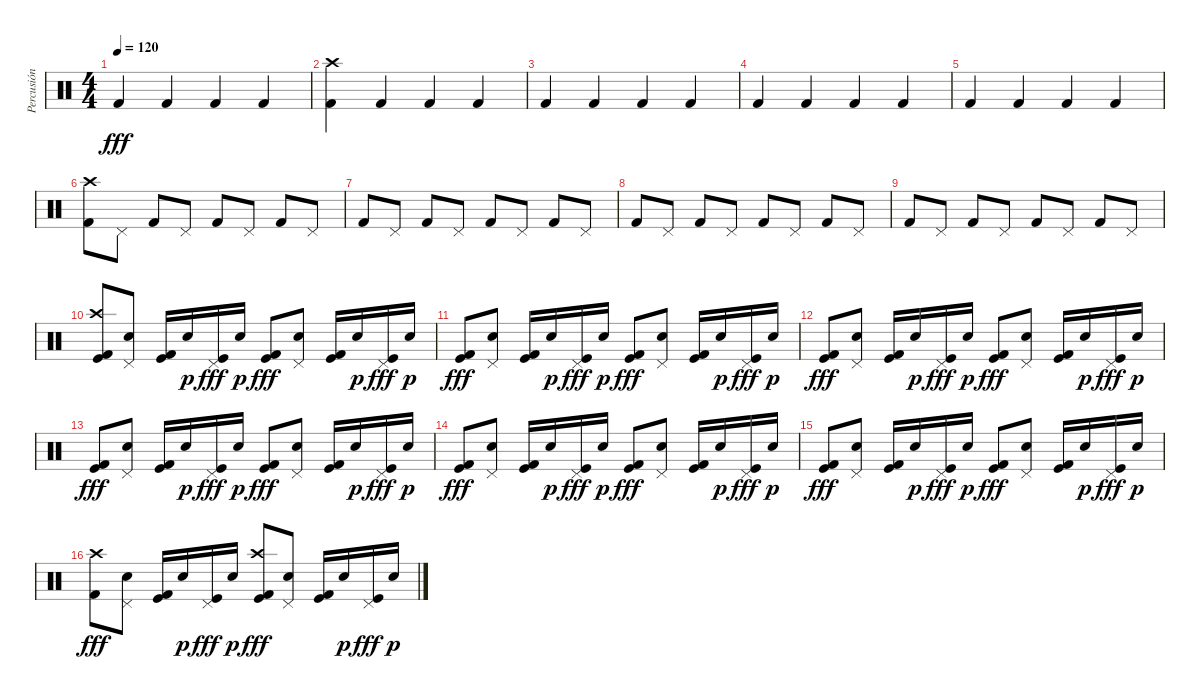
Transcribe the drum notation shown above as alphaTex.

\track ("Percusión" "Percusión") {instrument percussion}
\staff {score}
\articulation defaults
\ts (4 4)
\tempo 120
\clef neutral
\ks c "Kick (hit) 2".4{dy fff} "Kick (hit) 2".4 "Kick (hit) 2".4 "Kick (hit) 2".4
|
("Crash high (hit)" "Kick (hit) 2").4 "Kick (hit) 2".4 "Kick (hit) 2".4 "Kick (hit) 2".4 |
"Kick (hit) 2".4 "Kick (hit) 2".4 "Kick (hit) 2".4 "Kick (hit) 2".4 |
"Kick (hit) 2".4 "Kick (hit) 2".4 "Kick (hit) 2".4 "Kick (hit) 2".4 |
"Kick (hit) 2".4 "Kick (hit) 2".4 "Kick (hit) 2".4 "Kick (hit) 2".4 |
("Crash high (hit)" "Kick (hit) 2").8 "Pedal Hi-Hat (hit)".8 "Kick (hit) 2".8 "Pedal Hi-Hat (hit)".8 "Kick (hit) 2".8 "Pedal Hi-Hat (hit)".8 "Kick (hit) 2".8 "Pedal Hi-Hat (hit)".8 |
"Kick (hit) 2".8 "Pedal Hi-Hat (hit)".8 "Kick (hit) 2".8 "Pedal Hi-Hat (hit)".8 "Kick (hit) 2".8 "Pedal Hi-Hat (hit)".8 "Kick (hit) 2".8 "Pedal Hi-Hat (hit)".8 |
"Kick (hit) 2".8 "Pedal Hi-Hat (hit)".8 "Kick (hit) 2".8 "Pedal Hi-Hat (hit)".8 "Kick (hit) 2".8 "Pedal Hi-Hat (hit)".8 "Kick (hit) 2".8 "Pedal Hi-Hat (hit)".8 |
"Kick (hit) 2".8 "Pedal Hi-Hat (hit)".8 "Kick (hit) 2".8 "Pedal Hi-Hat (hit)".8 "Kick (hit) 2".8 "Pedal Hi-Hat (hit)".8 "Kick (hit) 2".8 "Pedal Hi-Hat (hit)".8 |
("Kick (hit)" "Crash high (hit)" "Kick (hit) 2").8 ("Electric Snare (hit)" "Pedal Hi-Hat (hit)").8 ("Kick (hit)" "Kick (hit) 2").16 "Electric Snare (hit)".16{dy p} ("Kick (hit)" "Pedal Hi-Hat (hit)").16{dy fff} "Electric Snare (hit)".16{dy p} ("Kick (hit)" "Kick (hit) 2").8{dy fff} ("Electric Snare (hit)" "Pedal Hi-Hat (hit)").8 ("Kick (hit)" "Kick (hit) 2").16 "Electric Snare (hit)".16{dy p} ("Kick (hit)" "Pedal Hi-Hat (hit)").16{dy fff} "Electric Snare (hit)".16{dy p} |
("Kick (hit)" "Kick (hit) 2").8{dy fff} ("Electric Snare (hit)" "Pedal Hi-Hat (hit)").8 ("Kick (hit)" "Kick (hit) 2").16 "Electric Snare (hit)".16{dy p} ("Kick (hit)" "Pedal Hi-Hat (hit)").16{dy fff} "Electric Snare (hit)".16{dy p} ("Kick (hit)" "Kick (hit) 2").8{dy fff} ("Electric Snare (hit)" "Pedal Hi-Hat (hit)").8 ("Kick (hit)" "Kick (hit) 2").16 "Electric Snare (hit)".16{dy p} ("Kick (hit)" "Pedal Hi-Hat (hit)").16{dy fff} "Electric Snare (hit)".16{dy p} |
("Kick (hit)" "Kick (hit) 2").8{dy fff} ("Electric Snare (hit)" "Pedal Hi-Hat (hit)").8 ("Kick (hit)" "Kick (hit) 2").16 "Electric Snare (hit)".16{dy p} ("Kick (hit)" "Pedal Hi-Hat (hit)").16{dy fff} "Electric Snare (hit)".16{dy p} ("Kick (hit)" "Kick (hit) 2").8{dy fff} ("Electric Snare (hit)" "Pedal Hi-Hat (hit)").8 ("Kick (hit)" "Kick (hit) 2").16 "Electric Snare (hit)".16{dy p} ("Kick (hit)" "Pedal Hi-Hat (hit)").16{dy fff} "Electric Snare (hit)".16{dy p} |
("Kick (hit)" "Kick (hit) 2").8{dy fff} ("Electric Snare (hit)" "Pedal Hi-Hat (hit)").8 ("Kick (hit)" "Kick (hit) 2").16 "Electric Snare (hit)".16{dy p} ("Kick (hit)" "Pedal Hi-Hat (hit)").16{dy fff} "Electric Snare (hit)".16{dy p} ("Kick (hit)" "Kick (hit) 2").8{dy fff} ("Electric Snare (hit)" "Pedal Hi-Hat (hit)").8 ("Kick (hit)" "Kick (hit) 2").16 "Electric Snare (hit)".16{dy p} ("Kick (hit)" "Pedal Hi-Hat (hit)").16{dy fff} "Electric Snare (hit)".16{dy p} |
("Kick (hit)" "Kick (hit) 2").8{dy fff} ("Electric Snare (hit)" "Pedal Hi-Hat (hit)").8 ("Kick (hit)" "Kick (hit) 2").16 "Electric Snare (hit)".16{dy p} ("Kick (hit)" "Pedal Hi-Hat (hit)").16{dy fff} "Electric Snare (hit)".16{dy p} ("Kick (hit)" "Kick (hit) 2").8{dy fff} ("Electric Snare (hit)" "Pedal Hi-Hat (hit)").8 ("Kick (hit)" "Kick (hit) 2").16 "Electric Snare (hit)".16{dy p} ("Kick (hit)" "Pedal Hi-Hat (hit)").16{dy fff} "Electric Snare (hit)".16{dy p} |
("Kick (hit)" "Kick (hit) 2").8{dy fff} ("Electric Snare (hit)" "Pedal Hi-Hat (hit)").8 ("Kick (hit)" "Kick (hit) 2").16 "Electric Snare (hit)".16{dy p} ("Kick (hit)" "Pedal Hi-Hat (hit)").16{dy fff} "Electric Snare (hit)".16{dy p} ("Kick (hit)" "Kick (hit) 2").8{dy fff} ("Electric Snare (hit)" "Pedal Hi-Hat (hit)").8 ("Kick (hit)" "Kick (hit) 2").16 "Electric Snare (hit)".16{dy p} ("Kick (hit)" "Pedal Hi-Hat (hit)").16{dy fff} "Electric Snare (hit)".16{dy p} |
("Crash high (hit)" "Kick (hit) 2").8{dy fff} ("Electric Snare (hit)" "Pedal Hi-Hat (hit)").8 ("Kick (hit)" "Kick (hit) 2").16 "Electric Snare (hit)".16{dy p} ("Kick (hit)" "Pedal Hi-Hat (hit)").16{dy fff} "Electric Snare (hit)".16{dy p} ("Kick (hit)" "Kick (hit) 2" "Crash high (hit)").8{dy fff} ("Electric Snare (hit)" "Pedal Hi-Hat (hit)").8 ("Kick (hit)" "Kick (hit) 2").16 "Electric Snare (hit)".16{dy p} ("Kick (hit)" "Pedal Hi-Hat (hit)").16{dy fff} "Electric Snare (hit)".16{dy p}
